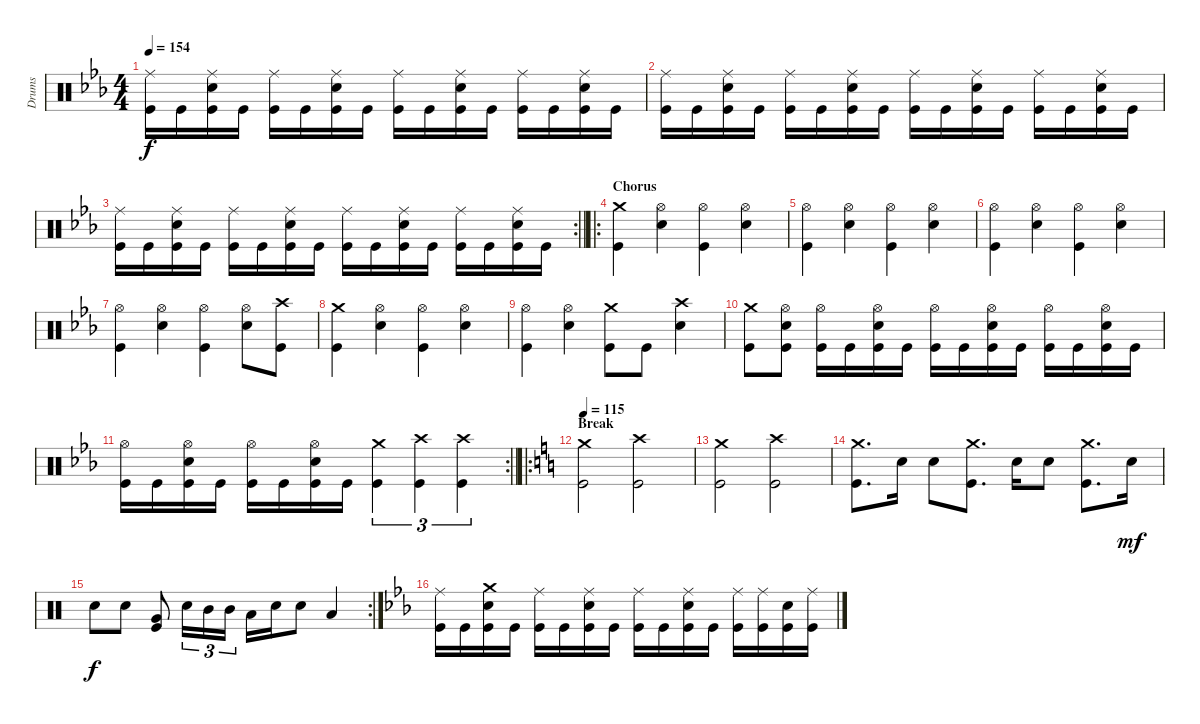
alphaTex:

\track ("Drums" "Drums") {instrument percussion}
\staff {score}
\articulation defaults
\ts (4 4)
\tempo 154
\clef neutral
\ks cminor
("Ride (middle)" "Kick (hit)").16{dy f} "Kick (hit)".16 ("Ride (middle)" "Snare (hit) 2" "Kick (hit)").16 "Kick (hit)".16 ("Ride (middle)" "Kick (hit)").16 "Kick (hit)".16 ("Ride (middle)" "Snare (hit) 2" "Kick (hit)").16 "Kick (hit)".16 ("Ride (middle)" "Kick (hit)").16 "Kick (hit)".16 ("Ride (middle)" "Snare (hit) 2" "Kick (hit)").16 "Kick (hit)".16 ("Ride (middle)" "Kick (hit)").16 "Kick (hit)".16 ("Ride (middle)" "Snare (hit) 2" "Kick (hit)").16 "Kick (hit)".16 |
("Ride (middle)" "Kick (hit)").16 "Kick (hit)".16 ("Ride (middle)" "Snare (hit) 2" "Kick (hit)").16 "Kick (hit)".16 ("Ride (middle)" "Kick (hit)").16 "Kick (hit)".16 ("Ride (middle)" "Snare (hit) 2" "Kick (hit)").16 "Kick (hit)".16 ("Ride (middle)" "Kick (hit)").16 "Kick (hit)".16 ("Ride (middle)" "Snare (hit) 2" "Kick (hit)").16 "Kick (hit)".16 ("Ride (middle)" "Kick (hit)").16 "Kick (hit)".16 ("Ride (middle)" "Snare (hit) 2" "Kick (hit)").16 "Kick (hit)".16 |
\rc 2
\barLineRight lightlight
("Ride (middle)" "Kick (hit)").16 "Kick (hit)".16 ("Ride (middle)" "Snare (hit) 2" "Kick (hit)").16 "Kick (hit)".16 ("Ride (middle)" "Kick (hit)").16 "Kick (hit)".16 ("Ride (middle)" "Snare (hit) 2" "Kick (hit)").16 "Kick (hit)".16 ("Ride (middle)" "Kick (hit)").16 "Kick (hit)".16 ("Ride (middle)" "Snare (hit) 2" "Kick (hit)").16 "Kick (hit)".16 ("Ride (middle)" "Kick (hit)").16 "Kick (hit)".16 ("Ride (middle)" "Snare (hit) 2" "Kick (hit)").16 "Kick (hit)".16 |
\ro
\section ("" "Chorus")
("Crash medium (hit)" "Kick (hit)").4 ("Hi-Hat (open)" "Snare (hit) 2").4 ("Hi-Hat (open)" "Kick (hit)").4 ("Hi-Hat (open)" "Snare (hit) 2").4 |
("Hi-Hat (open)" "Kick (hit)").4 ("Hi-Hat (open)" "Snare (hit) 2").4 ("Hi-Hat (open)" "Kick (hit)").4 ("Hi-Hat (open)" "Snare (hit) 2").4 |
("Hi-Hat (open)" "Kick (hit)").4 ("Hi-Hat (open)" "Snare (hit) 2").4 ("Hi-Hat (open)" "Kick (hit)").4 ("Hi-Hat (open)" "Snare (hit) 2").4 |
("Hi-Hat (open)" "Kick (hit)").4 ("Hi-Hat (open)" "Snare (hit) 2").4 ("Hi-Hat (open)" "Kick (hit)").4 ("Hi-Hat (open)" "Snare (hit) 2").8 ("Crash high (hit)" "Kick (hit)").8 |
("Crash medium (hit)" "Kick (hit)").4 ("Hi-Hat (open)" "Snare (hit) 2").4 ("Hi-Hat (open)" "Kick (hit)").4 ("Hi-Hat (open)" "Snare (hit) 2").4 |
("Hi-Hat (open)" "Kick (hit)").4 ("Hi-Hat (open)" "Snare (hit) 2").4 ("Crash medium (hit)" "Kick (hit)").8 "Kick (hit)".8 ("Crash high (hit)" "Snare (hit) 2").4 |
("Crash medium (hit)" "Kick (hit)").8 ("Hi-Hat (open)" "Snare (hit) 2" "Kick (hit)").8 ("Hi-Hat (open)" "Kick (hit)").16 "Kick (hit)".16 ("Hi-Hat (open)" "Snare (hit) 2" "Kick (hit)").16 "Kick (hit)".16 ("Hi-Hat (open)" "Kick (hit)").16 "Kick (hit)".16 ("Hi-Hat (open)" "Snare (hit) 2" "Kick (hit)").16 "Kick (hit)".16 ("Hi-Hat (open)" "Kick (hit)").16 "Kick (hit)".16 ("Hi-Hat (open)" "Snare (hit) 2" "Kick (hit)").16 "Kick (hit)".16 |
\rc 2
\barLineRight lightlight
("Hi-Hat (open)" "Kick (hit)").16 "Kick (hit)".16 ("Hi-Hat (open)" "Snare (hit) 2" "Kick (hit)").16 "Kick (hit)".16 ("Hi-Hat (open)" "Kick (hit)").16 "Kick (hit)".16 ("Hi-Hat (open)" "Snare (hit) 2" "Kick (hit)").16 "Kick (hit)".16 ("Crash medium (hit)" "Kick (hit)").4{tu (3 2)} ("Crash high (hit)" "Kick (hit)").4{tu (3 2)} ("Crash high (hit)" "Kick (hit)").4{tu (3 2)} |
\ro
\section ("" "Break")
\tempo 115
\ks aminor
("Crash medium (hit)" "Kick (hit)").2 ("Crash high (hit)" "Kick (hit)").2 |
("Crash medium (hit)" "Kick (hit)").2 ("Crash high (hit)" "Kick (hit)").2 |
("Crash medium (hit)" "Kick (hit)").8{d} "Snare (hit) 2".16 "Snare (hit) 2".8 ("Crash medium (hit)" "Kick (hit)").8{d} "Snare (hit) 2".16 "Snare (hit) 2".8 ("Crash medium (hit)" "Kick (hit)").8{d} "Snare (hit) 2".16{dy mf} |
\rc 2 "Snare (hit) 2".8{dy f} "Snare (hit) 2".8
("Very Low Tom (hit)" "Kick (hit)").8 "Snare (hit) 2".16{tu (3 2)} "Mid Tom (hit)".16{tu (3 2)} "Mid Tom (hit)".16{tu (3 2)} "Low Tom (hit)".16 "Snare (hit) 2".16 "Snare (hit) 2".8 "Low Floor Tom (hit)".4 |
\ks cminor
("Ride (middle)" "Kick (hit)").16 "Kick (hit)".16 ("Crash medium (hit)" "Snare (hit) 2" "Kick (hit)").16 "Kick (hit)".16 ("Ride (middle)" "Kick (hit)").16 "Kick (hit)".16 ("Ride (middle)" "Snare (hit) 2" "Kick (hit)").16 "Kick (hit)".16 ("Ride (middle)" "Kick (hit)").16 "Kick (hit)".16 ("Ride (middle)" "Snare (hit) 2" "Kick (hit)").16 "Kick (hit)".16 ("Ride (middle)" "Kick (hit)").16 ("Ride (middle)" "Kick (hit)").16 ("Snare (hit) 2" "Kick (hit)").16 ("Ride (middle)" "Kick (hit)").16
